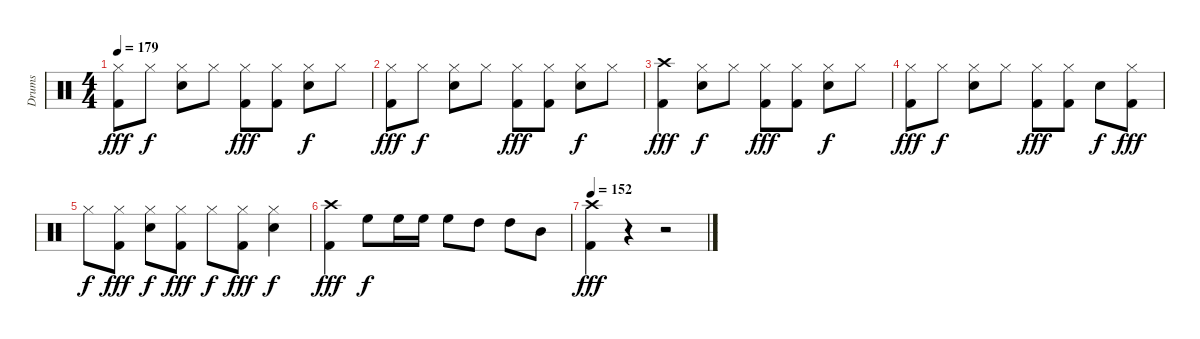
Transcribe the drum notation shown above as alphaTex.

\track ("Drums" "Drums") {instrument percussion}
\staff {score}
\articulation defaults
\ts (4 4)
\tempo 179
\clef neutral
\ks c
("Hi-Hat (closed)" "Kick (hit) 2").8{dy fff} "Hi-Hat (closed)".8{dy f} ("Hi-Hat (closed)" "Electric Snare (hit)").8 "Hi-Hat (closed)".8 ("Hi-Hat (closed)" "Kick (hit) 2").8{dy fff} ("Hi-Hat (closed)" "Kick (hit) 2").8 ("Hi-Hat (closed)" "Electric Snare (hit)").8{dy f} "Hi-Hat (closed)".8 |
("Hi-Hat (closed)" "Kick (hit) 2").8{dy fff} "Hi-Hat (closed)".8{dy f} ("Hi-Hat (closed)" "Electric Snare (hit)").8 "Hi-Hat (closed)".8 ("Hi-Hat (closed)" "Kick (hit) 2").8{dy fff} ("Hi-Hat (closed)" "Kick (hit) 2").8 ("Hi-Hat (closed)" "Electric Snare (hit)").8{dy f} "Hi-Hat (closed)".8 |
("Crash high (hit)" "Kick (hit) 2").4{dy fff} ("Hi-Hat (closed)" "Electric Snare (hit)").8{dy f} "Hi-Hat (closed)".8 ("Hi-Hat (closed)" "Kick (hit) 2").8{dy fff} ("Hi-Hat (closed)" "Kick (hit) 2").8 ("Hi-Hat (closed)" "Electric Snare (hit)").8{dy f} "Hi-Hat (closed)".8 |
("Hi-Hat (closed)" "Kick (hit) 2").8{dy fff} "Hi-Hat (closed)".8{dy f} ("Hi-Hat (closed)" "Electric Snare (hit)").8 "Hi-Hat (closed)".8 ("Hi-Hat (closed)" "Kick (hit) 2").8{dy fff} ("Hi-Hat (closed)" "Kick (hit) 2").8 "Electric Snare (hit)".8{dy f} ("Hi-Hat (closed)" "Kick (hit) 2").8{dy fff} |
"Hi-Hat (closed)".8{dy f} ("Hi-Hat (closed)" "Kick (hit) 2").8{dy fff} ("Hi-Hat (closed)" "Electric Snare (hit)").8{dy f} ("Hi-Hat (closed)" "Kick (hit) 2").8{dy fff} "Hi-Hat (closed)".8{dy f} ("Hi-Hat (closed)" "Kick (hit) 2").8{dy fff} ("Hi-Hat (closed)" "Electric Snare (hit)").4{dy f} |
("Crash high (hit)" "Kick (hit) 2").4{dy fff} "High Floor Tom (hit)".8{dy f} "High Floor Tom (hit)".16 "High Floor Tom (hit)".16 "High Floor Tom (hit)".8 "High Tom (hit)".8 "High Tom (hit)".8 "Mid Tom (hit)".8 |
\tempo 152
("Crash high (hit)" "Kick (hit) 2").4{dy fff} r.4 r.2
